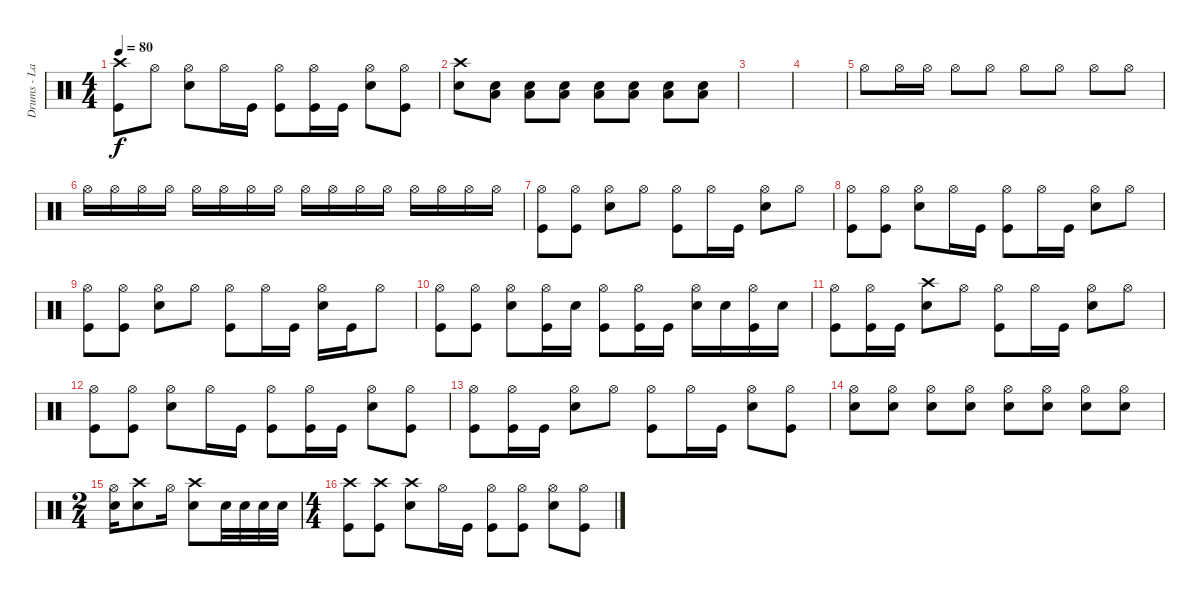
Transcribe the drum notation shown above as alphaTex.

\track ("Drums - Lars" "Drums - La") {instrument percussion}
\staff {score}
\articulation defaults
\ts (4 4)
\tempo 80
\clef neutral
\ks c
("Crash high (hit)" "Kick (hit)").8{dy f} "Hi-Hat (open)".8 ("Hi-Hat (open)" "Snare (hit) 2").8 "Hi-Hat (open)".16 "Kick (hit)".16 ("Hi-Hat (open)" "Kick (hit)").8 ("Hi-Hat (open)" "Kick (hit)").16 "Kick (hit)".16 ("Hi-Hat (open)" "Snare (hit) 2").8 ("Hi-Hat (open)" "Kick (hit)").8 |
("Crash high (hit)" "Snare (hit) 2").8 ("Snare (hit) 2" "Low Floor Tom (hit)").8 ("Snare (hit) 2" "Low Floor Tom (hit)").8 ("Snare (hit) 2" "Low Floor Tom (hit)").8 ("Snare (hit) 2" "Low Floor Tom (hit)").8 ("Snare (hit) 2" "Low Floor Tom (hit)").8 ("Snare (hit) 2" "Low Floor Tom (hit)").8 ("Snare (hit) 2" "Low Floor Tom (hit)").8 |
|
|
"Hi-Hat (open)".8 "Hi-Hat (open)".16 "Hi-Hat (open)".16 "Hi-Hat (open)".8 "Hi-Hat (open)".8 "Hi-Hat (open)".8 "Hi-Hat (open)".8 "Hi-Hat (open)".8 "Hi-Hat (open)".8 |
"Hi-Hat (open)".16 "Hi-Hat (open)".16 "Hi-Hat (open)".16 "Hi-Hat (open)".16 "Hi-Hat (open)".16 "Hi-Hat (open)".16 "Hi-Hat (open)".16 "Hi-Hat (open)".16 "Hi-Hat (open)".16 "Hi-Hat (open)".16 "Hi-Hat (open)".16 "Hi-Hat (open)".16 "Hi-Hat (open)".16 "Hi-Hat (open)".16 "Hi-Hat (open)".16 "Hi-Hat (open)".16 |
("Hi-Hat (open)" "Kick (hit)").8 ("Hi-Hat (open)" "Kick (hit)").8 ("Hi-Hat (open)" "Snare (hit) 2").8 "Hi-Hat (open)".8 ("Hi-Hat (open)" "Kick (hit)").8 "Hi-Hat (open)".16 "Kick (hit)".16 ("Hi-Hat (open)" "Snare (hit) 2").8 "Hi-Hat (open)".8 |
("Hi-Hat (open)" "Kick (hit)").8 ("Hi-Hat (open)" "Kick (hit)").8 ("Hi-Hat (open)" "Snare (hit) 2").8 "Hi-Hat (open)".16 "Kick (hit)".16 ("Hi-Hat (open)" "Kick (hit)").8 "Hi-Hat (open)".16 "Kick (hit)".16 ("Hi-Hat (open)" "Snare (hit) 2").8 "Hi-Hat (open)".8 |
("Hi-Hat (open)" "Kick (hit)").8 ("Hi-Hat (open)" "Kick (hit)").8 ("Hi-Hat (open)" "Snare (hit) 2").8 "Hi-Hat (open)".8 ("Hi-Hat (open)" "Kick (hit)").8 "Hi-Hat (open)".16 "Kick (hit)".16 ("Hi-Hat (open)" "Snare (hit) 2").16 "Kick (hit)".16 "Hi-Hat (open)".8 |
("Hi-Hat (open)" "Kick (hit)").8 ("Hi-Hat (open)" "Kick (hit)").8 ("Hi-Hat (open)" "Snare (hit) 2").8 ("Hi-Hat (open)" "Kick (hit)").16 "Snare (hit) 2".16 ("Hi-Hat (open)" "Kick (hit)").8 ("Hi-Hat (open)" "Kick (hit)").16 "Kick (hit)".16 ("Hi-Hat (open)" "Snare (hit) 2").16 "Snare (hit) 2".16 ("Hi-Hat (open)" "Kick (hit)").16 "Snare (hit) 2".16 |
("Hi-Hat (open)" "Kick (hit)").8 ("Hi-Hat (open)" "Kick (hit)").16 "Kick (hit)".16 ("Crash high (hit)" "Snare (hit) 2").8 "Hi-Hat (open)".8 ("Hi-Hat (open)" "Kick (hit)").8 "Hi-Hat (open)".16 "Kick (hit)".16 ("Hi-Hat (open)" "Snare (hit) 2").8 "Hi-Hat (open)".8 |
("Hi-Hat (open)" "Kick (hit)").8 ("Hi-Hat (open)" "Kick (hit)").8 ("Hi-Hat (open)" "Snare (hit) 2").8 "Hi-Hat (open)".16 "Kick (hit)".16 ("Hi-Hat (open)" "Kick (hit)").8 ("Hi-Hat (open)" "Kick (hit)").16 "Kick (hit)".16 ("Hi-Hat (open)" "Snare (hit) 2").8 ("Hi-Hat (open)" "Kick (hit)").8 |
("Hi-Hat (open)" "Kick (hit)").8 ("Hi-Hat (open)" "Kick (hit)").16 "Kick (hit)".16 ("Hi-Hat (open)" "Snare (hit) 2").8 "Hi-Hat (open)".8 ("Hi-Hat (open)" "Kick (hit)").8 "Hi-Hat (open)".16 "Kick (hit)".16 ("Hi-Hat (open)" "Snare (hit) 2").8 ("Hi-Hat (open)" "Kick (hit)").8 |
("Hi-Hat (open)" "Snare (hit) 2").8 ("Hi-Hat (open)" "Snare (hit) 2").8 ("Hi-Hat (open)" "Snare (hit) 2").8 ("Hi-Hat (open)" "Snare (hit) 2").8 ("Hi-Hat (open)" "Snare (hit) 2").8 ("Hi-Hat (open)" "Snare (hit) 2").8 ("Hi-Hat (open)" "Snare (hit) 2").8 ("Hi-Hat (open)" "Snare (hit) 2").8 |
\ts (2 4)
("Hi-Hat (open)" "Snare (hit) 2").16 ("Crash high (hit)" "Snare (hit) 2").8 "Hi-Hat (open)".16 ("Crash high (hit)" "Snare (hit) 2").8 "Snare (hit) 2".32 "Snare (hit) 2".32 "Snare (hit) 2".32 "Snare (hit) 2".32 |
\ts (4 4)
("Crash high (hit)" "Kick (hit)").8 ("Crash high (hit)" "Kick (hit)").8 ("Crash high (hit)" "Snare (hit) 2").8 "Hi-Hat (open)".16 "Kick (hit)".16 ("Hi-Hat (open)" "Kick (hit)").8 ("Hi-Hat (open)" "Kick (hit)").8 ("Hi-Hat (open)" "Snare (hit) 2").8 ("Hi-Hat (open)" "Kick (hit)").8
